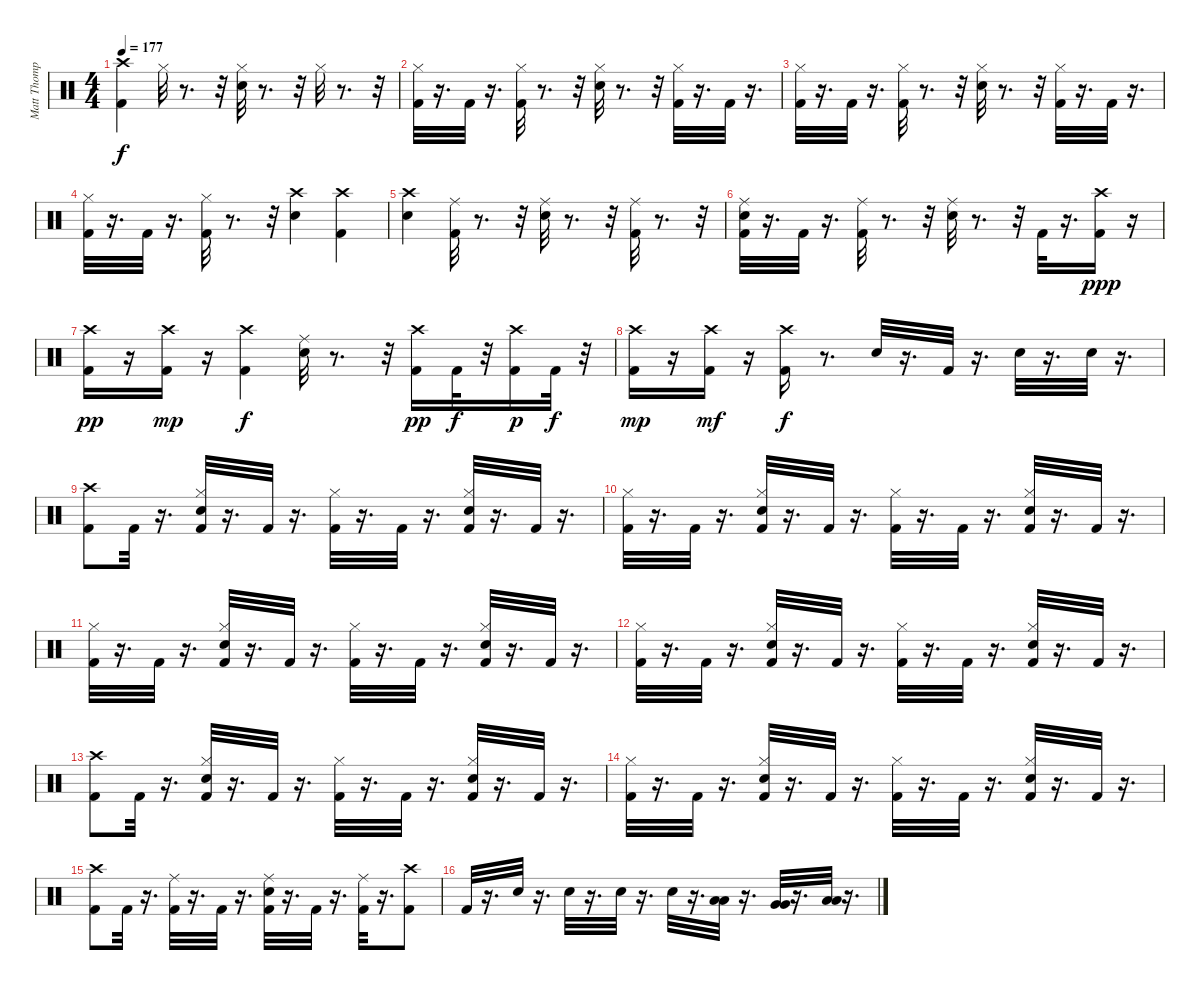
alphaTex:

\track ("Matt Thompson" "Matt Thomp") {instrument percussion}
\staff {score}
\articulation defaults
\ts (4 4)
\tempo 177
\clef neutral
\ks c
("Crash high (hit)" "Kick (hit) 2").4{dy f} "Hi-Hat (closed)".32 r.8{d} r.32 ("Hi-Hat (closed)" "Snare (hit) 2").32 r.8{d} r.32 "Hi-Hat (closed)".32 r.8{d} r.32 |
("Hi-Hat (closed)" "Kick (hit) 2").32 r.16{d} "Kick (hit) 2".32 r.16{d} ("Hi-Hat (closed)" "Kick (hit) 2").32 r.8{d} r.32 ("Hi-Hat (closed)" "Snare (hit) 2").32 r.8{d} r.32 ("Hi-Hat (closed)" "Kick (hit) 2").32 r.16{d} "Kick (hit) 2".32 r.16{d} |
("Kick (hit) 2" "Hi-Hat (closed)").32 r.16{d} "Kick (hit) 2".32 r.16{d} ("Kick (hit) 2" "Hi-Hat (closed)").32 r.8{d} r.32 ("Snare (hit) 2" "Hi-Hat (closed)").32 r.8{d} r.32 ("Kick (hit) 2" "Hi-Hat (closed)").32 r.16{d} "Kick (hit) 2".32 r.16{d} |
("Kick (hit) 2" "Hi-Hat (closed)").32 r.16{d} "Kick (hit) 2".32 r.16{d} ("Kick (hit) 2" "Hi-Hat (closed)").32 r.8{d} r.32 ("Snare (hit) 2" "Crash high (hit)").4 ("Kick (hit) 2" "Crash high (hit)").4 |
("Crash high (hit)" "Snare (hit) 2").4 ("Ride (middle)" "Kick (hit) 2").32 r.8{d} r.32 ("Ride (middle)" "Snare (hit) 2").32 r.8{d} r.32 ("Kick (hit) 2" "Ride (middle)").32 r.8{d} r.32 |
("Snare (hit) 2" "Ride (middle)" "Kick (hit) 2").32 r.16{d} "Kick (hit) 2".32 r.16{d} ("Ride (middle)" "Kick (hit) 2").32 r.8{d} r.32 ("Ride (middle)" "Snare (hit) 2").32 r.8{d} r.32 "Kick (hit) 2".32 r.16{d} ("Crash high (hit)" "Kick (hit) 2").16{dy ppp} r.16 |
("Kick (hit) 2" "Crash high (hit)").16{dy pp} r.16 ("Crash high (hit)" "Kick (hit) 2").16{dy mp} r.16 ("Kick (hit) 2" "Crash high (hit)").4{dy f} ("Snare (hit) 2" "Ride (middle)").32 r.8{d} r.32 ("Kick (hit) 2" "Crash high (hit)").16{dy pp} "Kick (hit) 2".32{dy f} r.32 ("Crash high (hit)" "Kick (hit) 2").16{dy p} "Kick (hit) 2".32{dy f} r.32 |
("Crash high (hit)" "Kick (hit) 2").16{dy mp} r.16 ("Crash high (hit)" "Kick (hit) 2").16{dy mf} r.16 ("Crash high (hit)" "Kick (hit) 2").16{dy f} r.8{d} "Snare (hit) 2".32 r.16{d} "Kick (hit) 2".32 r.16{d} "Snare (hit) 2".32 r.16{d} "Snare (hit) 2".32 r.16{d} |
("Crash high (hit)" "Kick (hit) 2").8 "Kick (hit) 2".32 r.16{d} ("Snare (hit) 2" "Hi-Hat (closed)" "Kick (hit) 2").32 r.16{d} "Kick (hit) 2".32 r.16{d} ("Hi-Hat (closed)" "Kick (hit) 2").32 r.16{d} "Kick (hit) 2".32 r.16{d} ("Snare (hit) 2" "Hi-Hat (closed)" "Kick (hit) 2").32 r.16{d} "Kick (hit) 2".32 r.16{d} |
("Hi-Hat (closed)" "Kick (hit) 2").32 r.16{d} "Kick (hit) 2".32 r.16{d} ("Snare (hit) 2" "Hi-Hat (closed)" "Kick (hit) 2").32 r.16{d} "Kick (hit) 2".32 r.16{d} ("Hi-Hat (closed)" "Kick (hit) 2").32 r.16{d} "Kick (hit) 2".32 r.16{d} ("Snare (hit) 2" "Hi-Hat (closed)" "Kick (hit) 2").32 r.16{d} "Kick (hit) 2".32 r.16{d} |
("Hi-Hat (closed)" "Kick (hit) 2").32 r.16{d} "Kick (hit) 2".32 r.16{d} ("Snare (hit) 2" "Hi-Hat (closed)" "Kick (hit) 2").32 r.16{d} "Kick (hit) 2".32 r.16{d} ("Hi-Hat (closed)" "Kick (hit) 2").32 r.16{d} "Kick (hit) 2".32 r.16{d} ("Snare (hit) 2" "Hi-Hat (closed)" "Kick (hit) 2").32 r.16{d} "Kick (hit) 2".32 r.16{d} |
("Hi-Hat (closed)" "Kick (hit) 2").32 r.16{d} "Kick (hit) 2".32 r.16{d} ("Hi-Hat (closed)" "Snare (hit) 2" "Kick (hit) 2").32 r.16{d} "Kick (hit) 2".32 r.16{d} ("Hi-Hat (closed)" "Kick (hit) 2").32 r.16{d} "Kick (hit) 2".32 r.16{d} ("Hi-Hat (closed)" "Snare (hit) 2" "Kick (hit) 2").32 r.16{d} "Kick (hit) 2".32 r.16{d} |
("Crash high (hit)" "Kick (hit) 2").8 "Kick (hit) 2".32 r.16{d} ("Snare (hit) 2" "Hi-Hat (closed)" "Kick (hit) 2").32 r.16{d} "Kick (hit) 2".32 r.16{d} ("Hi-Hat (closed)" "Kick (hit) 2").32 r.16{d} "Kick (hit) 2".32 r.16{d} ("Snare (hit) 2" "Hi-Hat (closed)" "Kick (hit) 2").32 r.16{d} "Kick (hit) 2".32 r.16{d} |
("Hi-Hat (closed)" "Kick (hit) 2").32 r.16{d} "Kick (hit) 2".32 r.16{d} ("Snare (hit) 2" "Hi-Hat (closed)" "Kick (hit) 2").32 r.16{d} "Kick (hit) 2".32 r.16{d} ("Hi-Hat (closed)" "Kick (hit) 2").32 r.16{d} "Kick (hit) 2".32 r.16{d} ("Snare (hit) 2" "Hi-Hat (closed)" "Kick (hit) 2").32 r.16{d} "Kick (hit) 2".32 r.16{d} |
("Crash high (hit)" "Kick (hit) 2").8 "Kick (hit) 2".32 r.16{d} ("Ride (middle)" "Kick (hit) 2").32 r.16{d} "Kick (hit) 2".32 r.16{d} ("Ride (middle)" "Snare (hit) 2" "Kick (hit) 2").32 r.16{d} "Kick (hit) 2".32 r.16{d} ("Ride (middle)" "Kick (hit) 2").32 r.16{d} ("Crash high (hit)" "Kick (hit) 2").8 |
"Kick (hit) 2".32 r.16{d} "Snare (hit) 2".32 r.16{d} "Snare (hit) 2".32 r.16{d} "Snare (hit) 2".32 r.16{d} "Snare (hit) 2".32 r.16{d} ("Low Tom (hit)" "Low Tom (hit)").32 r.16{d} ("Very Low Tom (hit)" "Very Low Tom (hit)").32 r.16{d} ("Low Floor Tom (hit)" "Low Floor Tom (hit)").32 r.16{d}
